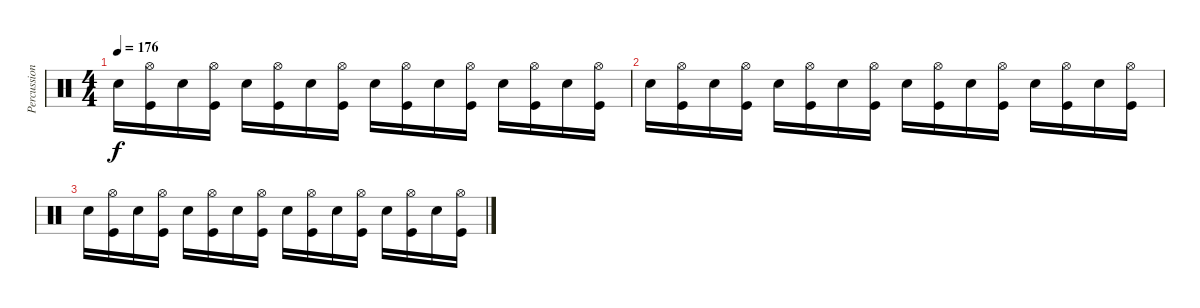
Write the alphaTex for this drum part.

\track ("Percussions" "Percussion") {instrument percussion}
\staff {score}
\articulation defaults
\ts (4 4)
\tempo 176
\clef neutral
\ks c "Snare (hit) 2".16{dy f}
("Hi-Hat (open)" "Kick (hit)").16 "Snare (hit) 2".16 ("Hi-Hat (open)" "Kick (hit)").16 "Snare (hit) 2".16 ("Hi-Hat (open)" "Kick (hit)").16 "Snare (hit) 2".16 ("Hi-Hat (open)" "Kick (hit)").16 "Snare (hit) 2".16 ("Hi-Hat (open)" "Kick (hit)").16 "Snare (hit) 2".16 ("Hi-Hat (open)" "Kick (hit)").16 "Snare (hit) 2".16 ("Hi-Hat (open)" "Kick (hit)").16 "Snare (hit) 2".16 ("Hi-Hat (open)" "Kick (hit)").16 |
"Snare (hit) 2".16 ("Hi-Hat (open)" "Kick (hit)").16 "Snare (hit) 2".16 ("Hi-Hat (open)" "Kick (hit)").16 "Snare (hit) 2".16 ("Hi-Hat (open)" "Kick (hit)").16 "Snare (hit) 2".16 ("Hi-Hat (open)" "Kick (hit)").16 "Snare (hit) 2".16 ("Hi-Hat (open)" "Kick (hit)").16 "Snare (hit) 2".16 ("Hi-Hat (open)" "Kick (hit)").16 "Snare (hit) 2".16 ("Hi-Hat (open)" "Kick (hit)").16 "Snare (hit) 2".16 ("Hi-Hat (open)" "Kick (hit)").16 |
"Snare (hit) 2".16 ("Hi-Hat (open)" "Kick (hit)").16 "Snare (hit) 2".16 ("Hi-Hat (open)" "Kick (hit)").16 "Snare (hit) 2".16 ("Hi-Hat (open)" "Kick (hit)").16 "Snare (hit) 2".16 ("Hi-Hat (open)" "Kick (hit)").16 "Snare (hit) 2".16 ("Hi-Hat (open)" "Kick (hit)").16 "Snare (hit) 2".16 ("Hi-Hat (open)" "Kick (hit)").16 "Snare (hit) 2".16 ("Hi-Hat (open)" "Kick (hit)").16 "Snare (hit) 2".16 ("Hi-Hat (open)" "Kick (hit)").16
